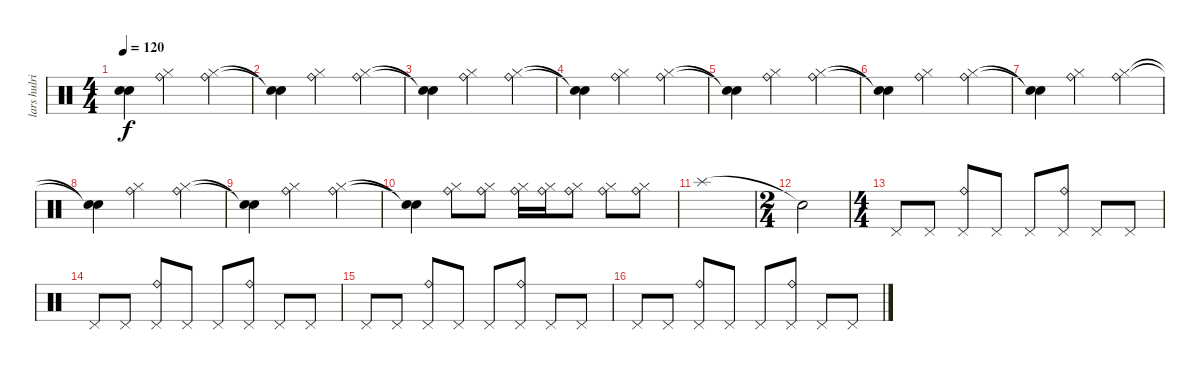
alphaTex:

\track ("lars hulrich" "lars hulri") {instrument percussion}
\staff {score}
\articulation defaults
\ts (4 4)
\tempo 120
\clef neutral
\ks c
("Snare (hit)"{t} "Snare (hit)"{t}).4{dy f} ("Ride (bell)" "Hi-Hat (closed)").2 ("Ride (bell)" "Hi-Hat (closed)").4 |
("Snare (hit)"{t} "Snare (hit)"{t}).4 ("Ride (bell)" "Hi-Hat (closed)").2 ("Ride (bell)" "Hi-Hat (closed)").4 |
("Snare (hit)"{t} "Snare (hit)"{t}).4 ("Ride (bell)" "Hi-Hat (closed)").2 ("Ride (bell)" "Hi-Hat (closed)").4 |
("Snare (hit)"{t} "Snare (hit)"{t}).4 ("Ride (bell)" "Hi-Hat (closed)").2 ("Ride (bell)" "Hi-Hat (closed)").4 |
("Snare (hit)"{t} "Snare (hit)"{t}).4 ("Ride (bell)" "Hi-Hat (closed)").2 ("Ride (bell)" "Hi-Hat (closed)").4 |
("Snare (hit)"{t} "Snare (hit)"{t}).4 ("Ride (bell)" "Hi-Hat (closed)").2 ("Ride (bell)" "Hi-Hat (closed)").4 |
("Snare (hit)"{t} "Snare (hit)"{t}).4 ("Ride (bell)" "Hi-Hat (closed)").2 ("Ride (bell)" "Hi-Hat (closed)").4 |
("Snare (hit)"{t} "Snare (hit)"{t}).4 ("Ride (bell)" "Hi-Hat (closed)").2 ("Ride (bell)" "Hi-Hat (closed)").4 |
("Snare (hit)"{t} "Snare (hit)"{t}).4 ("Ride (bell)" "Hi-Hat (closed)").2 ("Ride (bell)" "Hi-Hat (closed)").4 |
("Snare (hit)"{t} "Snare (hit)"{t}).4 ("Ride (bell)" "Hi-Hat (closed)").8 ("Hi-Hat (closed)" "Ride (bell)").8 ("Ride (bell)" "Hi-Hat (closed)").16 ("Ride (bell)" "Hi-Hat (closed)").16 ("Ride (bell)" "Hi-Hat (closed)").8 ("Ride (bell)" "Hi-Hat (closed)").8 ("Ride (bell)" "Hi-Hat (closed)").8 |
"Splash (hit)".1 |
\ts (2 4)
"Snare (hit)"{t}.2 |
\ts (4 4)
"Pedal Hi-Hat (hit)".8 "Pedal Hi-Hat (hit)".8 ("Pedal Hi-Hat (hit)" "Ride (bell)").8 "Pedal Hi-Hat (hit)".8 "Pedal Hi-Hat (hit)".8 ("Pedal Hi-Hat (hit)" "Ride (bell)").8 "Pedal Hi-Hat (hit)".8 "Pedal Hi-Hat (hit)".8 |
"Pedal Hi-Hat (hit)".8 "Pedal Hi-Hat (hit)".8 ("Pedal Hi-Hat (hit)" "Ride (bell)").8 "Pedal Hi-Hat (hit)".8 "Pedal Hi-Hat (hit)".8 ("Pedal Hi-Hat (hit)" "Ride (bell)").8 "Pedal Hi-Hat (hit)".8 "Pedal Hi-Hat (hit)".8 |
"Pedal Hi-Hat (hit)".8 "Pedal Hi-Hat (hit)".8 ("Pedal Hi-Hat (hit)" "Ride (bell)").8 "Pedal Hi-Hat (hit)".8 "Pedal Hi-Hat (hit)".8 ("Pedal Hi-Hat (hit)" "Ride (bell)").8 "Pedal Hi-Hat (hit)".8 "Pedal Hi-Hat (hit)".8 |
"Pedal Hi-Hat (hit)".8 "Pedal Hi-Hat (hit)".8 ("Pedal Hi-Hat (hit)" "Ride (bell)").8 "Pedal Hi-Hat (hit)".8 "Pedal Hi-Hat (hit)".8 ("Pedal Hi-Hat (hit)" "Ride (bell)").8 "Pedal Hi-Hat (hit)".8 "Pedal Hi-Hat (hit)".8
